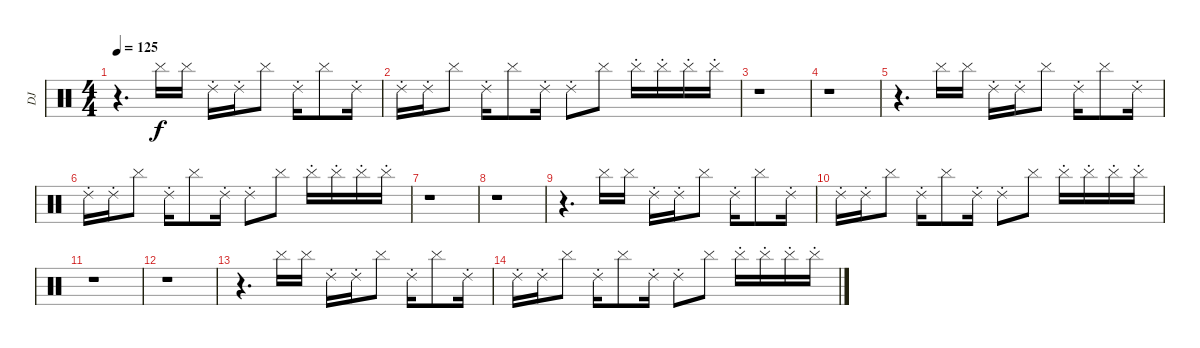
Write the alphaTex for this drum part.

\track ("DJ" "DJ") {instrument percussion}
\staff {score}
\articulation defaults
\ts (4 4)
\tempo 125
\clef neutral
\ks c
r.4{d dy f volume 15} "Cymbal (hit)".16 "Cymbal (hit)".16 "Ride (choke) 2".16 "Ride (choke) 2".16 "Cymbal (hit)".8 "Ride (choke) 2".16 "Cymbal (hit)".8 "Ride (choke) 2".16 |
"Ride (choke) 2".16 "Ride (choke) 2".16 "Cymbal (hit)".8 "Ride (choke) 2".16 "Cymbal (hit)".8 "Ride (choke) 2".16 "Ride (choke) 2".8 "Cymbal (hit)".8 "Cymbal (hit)"{st}.16 "Cymbal (hit)"{st}.16 "Cymbal (hit)"{st}.16 "Cymbal (hit)"{st}.16 |
r.1 |
r.1 |
r.4{d} "Cymbal (hit)".16 "Cymbal (hit)".16 "Ride (choke) 2".16 "Ride (choke) 2".16 "Cymbal (hit)".8 "Ride (choke) 2".16 "Cymbal (hit)".8 "Ride (choke) 2".16 |
"Ride (choke) 2".16 "Ride (choke) 2".16 "Cymbal (hit)".8 "Ride (choke) 2".16 "Cymbal (hit)".8 "Ride (choke) 2".16 "Ride (choke) 2".8 "Cymbal (hit)".8 "Cymbal (hit)"{st}.16 "Cymbal (hit)"{st}.16 "Cymbal (hit)"{st}.16 "Cymbal (hit)"{st}.16 |
r.1 |
r.1 |
r.4{d} "Cymbal (hit)".16 "Cymbal (hit)".16 "Ride (choke) 2".16 "Ride (choke) 2".16 "Cymbal (hit)".8 "Ride (choke) 2".16 "Cymbal (hit)".8 "Ride (choke) 2".16 |
"Ride (choke) 2".16 "Ride (choke) 2".16 "Cymbal (hit)".8 "Ride (choke) 2".16 "Cymbal (hit)".8 "Ride (choke) 2".16 "Ride (choke) 2".8 "Cymbal (hit)".8 "Cymbal (hit)"{st}.16 "Cymbal (hit)"{st}.16 "Cymbal (hit)"{st}.16 "Cymbal (hit)"{st}.16 |
r.1 |
r.1 |
r.4{d} "Cymbal (hit)".16 "Cymbal (hit)".16 "Ride (choke) 2".16 "Ride (choke) 2".16 "Cymbal (hit)".8 "Ride (choke) 2".16 "Cymbal (hit)".8 "Ride (choke) 2".16 |
"Ride (choke) 2".16 "Ride (choke) 2".16 "Cymbal (hit)".8 "Ride (choke) 2".16 "Cymbal (hit)".8 "Ride (choke) 2".16 "Ride (choke) 2".8 "Cymbal (hit)".8 "Cymbal (hit)"{st}.16 "Cymbal (hit)"{st}.16 "Cymbal (hit)"{st}.16 "Cymbal (hit)"{st}.16
